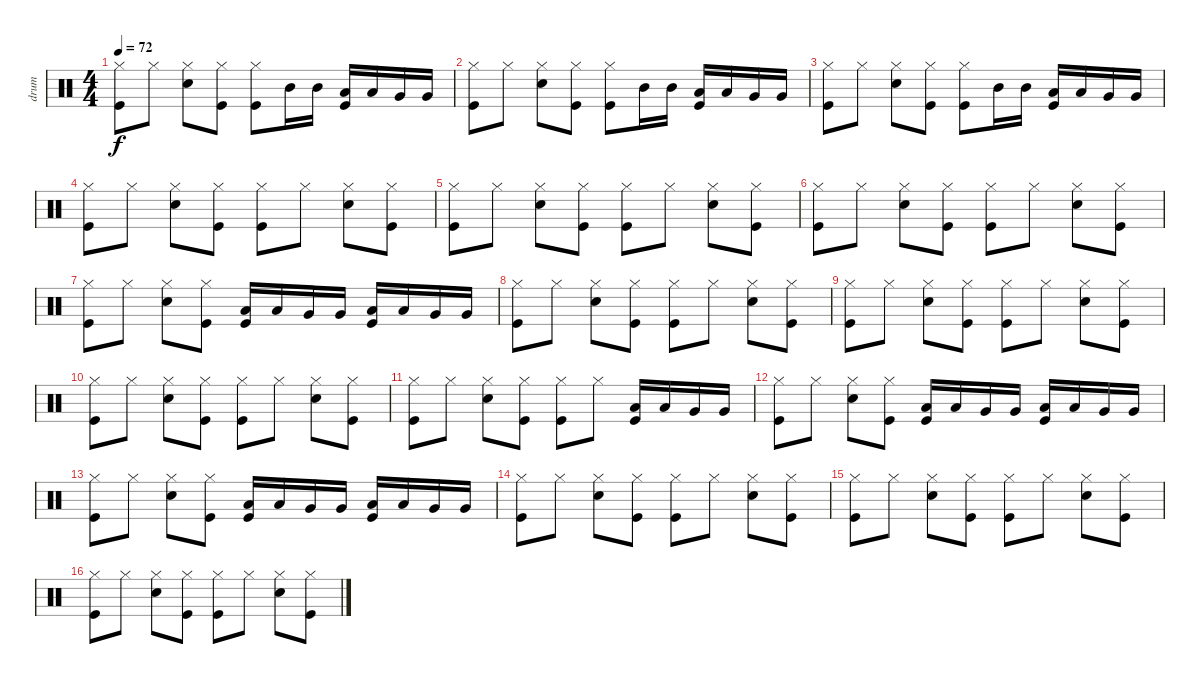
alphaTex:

\track ("drum" "drum") {instrument percussion}
\staff {score}
\articulation defaults
\ts (4 4)
\tempo 72
\clef neutral
\ks c
("Hi-Hat (closed)" "Kick (hit)").8{dy f} "Hi-Hat (closed)".8 ("Hi-Hat (closed)" "Snare (hit) 2").8 ("Hi-Hat (closed)" "Kick (hit)").8 ("Hi-Hat (closed)" "Kick (hit)").8 "Mid Tom (hit)".16 "Mid Tom (hit)".16 ("Low Tom (hit)" "Kick (hit)").16 "Low Tom (hit)".16 "Very Low Tom (hit)".16 "Very Low Tom (hit)".16 |
("Hi-Hat (closed)" "Kick (hit)").8 "Hi-Hat (closed)".8 ("Hi-Hat (closed)" "Snare (hit) 2").8 ("Hi-Hat (closed)" "Kick (hit)").8 ("Hi-Hat (closed)" "Kick (hit)").8 "Mid Tom (hit)".16 "Mid Tom (hit)".16 ("Low Tom (hit)" "Kick (hit)").16 "Low Tom (hit)".16 "Very Low Tom (hit)".16 "Very Low Tom (hit)".16 |
("Hi-Hat (closed)" "Kick (hit)").8 "Hi-Hat (closed)".8 ("Hi-Hat (closed)" "Snare (hit) 2").8 ("Hi-Hat (closed)" "Kick (hit)").8 ("Hi-Hat (closed)" "Kick (hit)").8 "Mid Tom (hit)".16 "Mid Tom (hit)".16 ("Low Tom (hit)" "Kick (hit)").16 "Low Tom (hit)".16 "Very Low Tom (hit)".16 "Very Low Tom (hit)".16 |
("Hi-Hat (closed)" "Kick (hit)").8 "Hi-Hat (closed)".8 ("Hi-Hat (closed)" "Snare (hit) 2").8 ("Hi-Hat (closed)" "Kick (hit)").8 ("Hi-Hat (closed)" "Kick (hit)").8 "Hi-Hat (closed)".8 ("Hi-Hat (closed)" "Snare (hit) 2").8 ("Hi-Hat (closed)" "Kick (hit)").8 |
("Hi-Hat (closed)" "Kick (hit)").8 "Hi-Hat (closed)".8 ("Hi-Hat (closed)" "Snare (hit) 2").8 ("Hi-Hat (closed)" "Kick (hit)").8 ("Hi-Hat (closed)" "Kick (hit)").8 "Hi-Hat (closed)".8 ("Hi-Hat (closed)" "Snare (hit) 2").8 ("Hi-Hat (closed)" "Kick (hit)").8 |
("Hi-Hat (closed)" "Kick (hit)").8 "Hi-Hat (closed)".8 ("Hi-Hat (closed)" "Snare (hit) 2").8 ("Hi-Hat (closed)" "Kick (hit)").8 ("Hi-Hat (closed)" "Kick (hit)").8 "Hi-Hat (closed)".8 ("Hi-Hat (closed)" "Snare (hit) 2").8 ("Hi-Hat (closed)" "Kick (hit)").8 |
("Hi-Hat (closed)" "Kick (hit)").8 "Hi-Hat (closed)".8 ("Hi-Hat (closed)" "Snare (hit) 2").8 ("Hi-Hat (closed)" "Kick (hit)").8 ("Low Tom (hit)" "Kick (hit)").16 "Low Tom (hit)".16 "Very Low Tom (hit)".16 "Very Low Tom (hit)".16 ("Low Tom (hit)" "Kick (hit)").16 "Low Tom (hit)".16 "Very Low Tom (hit)".16 "Very Low Tom (hit)".16 |
("Hi-Hat (closed)" "Kick (hit)").8 "Hi-Hat (closed)".8 ("Hi-Hat (closed)" "Snare (hit) 2").8 ("Hi-Hat (closed)" "Kick (hit)").8 ("Hi-Hat (closed)" "Kick (hit)").8 "Hi-Hat (closed)".8 ("Hi-Hat (closed)" "Snare (hit) 2").8 ("Hi-Hat (closed)" "Kick (hit)").8 |
("Hi-Hat (closed)" "Kick (hit)").8 "Hi-Hat (closed)".8 ("Hi-Hat (closed)" "Snare (hit) 2").8 ("Hi-Hat (closed)" "Kick (hit)").8 ("Hi-Hat (closed)" "Kick (hit)").8 "Hi-Hat (closed)".8 ("Hi-Hat (closed)" "Snare (hit) 2").8 ("Hi-Hat (closed)" "Kick (hit)").8 |
("Hi-Hat (closed)" "Kick (hit)").8 "Hi-Hat (closed)".8 ("Hi-Hat (closed)" "Snare (hit) 2").8 ("Hi-Hat (closed)" "Kick (hit)").8 ("Hi-Hat (closed)" "Kick (hit)").8 "Hi-Hat (closed)".8 ("Hi-Hat (closed)" "Snare (hit) 2").8 ("Hi-Hat (closed)" "Kick (hit)").8 |
("Hi-Hat (closed)" "Kick (hit)").8 "Hi-Hat (closed)".8 ("Hi-Hat (closed)" "Snare (hit) 2").8 ("Hi-Hat (closed)" "Kick (hit)").8 ("Hi-Hat (closed)" "Kick (hit)").8 "Hi-Hat (closed)".8 ("Low Tom (hit)" "Kick (hit)").16 "Low Tom (hit)".16 "Very Low Tom (hit)".16 "Very Low Tom (hit)".16 |
("Hi-Hat (closed)" "Kick (hit)").8 "Hi-Hat (closed)".8 ("Hi-Hat (closed)" "Snare (hit) 2").8 ("Hi-Hat (closed)" "Kick (hit)").8 ("Low Tom (hit)" "Kick (hit)").16 "Low Tom (hit)".16 "Very Low Tom (hit)".16 "Very Low Tom (hit)".16 ("Low Tom (hit)" "Kick (hit)").16 "Low Tom (hit)".16 "Very Low Tom (hit)".16 "Very Low Tom (hit)".16 |
("Hi-Hat (closed)" "Kick (hit)").8 "Hi-Hat (closed)".8 ("Hi-Hat (closed)" "Snare (hit) 2").8 ("Hi-Hat (closed)" "Kick (hit)").8 ("Low Tom (hit)" "Kick (hit)").16 "Low Tom (hit)".16 "Very Low Tom (hit)".16 "Very Low Tom (hit)".16 ("Low Tom (hit)" "Kick (hit)").16 "Low Tom (hit)".16 "Very Low Tom (hit)".16 "Very Low Tom (hit)".16 |
("Hi-Hat (closed)" "Kick (hit)").8 "Hi-Hat (closed)".8 ("Hi-Hat (closed)" "Snare (hit) 2").8 ("Hi-Hat (closed)" "Kick (hit)").8 ("Hi-Hat (closed)" "Kick (hit)").8 "Hi-Hat (closed)".8 ("Hi-Hat (closed)" "Snare (hit) 2").8 ("Hi-Hat (closed)" "Kick (hit)").8 |
("Hi-Hat (closed)" "Kick (hit)").8 "Hi-Hat (closed)".8 ("Hi-Hat (closed)" "Snare (hit) 2").8 ("Hi-Hat (closed)" "Kick (hit)").8 ("Hi-Hat (closed)" "Kick (hit)").8 "Hi-Hat (closed)".8 ("Hi-Hat (closed)" "Snare (hit) 2").8 ("Hi-Hat (closed)" "Kick (hit)").8 |
("Hi-Hat (closed)" "Kick (hit)").8 "Hi-Hat (closed)".8 ("Hi-Hat (closed)" "Snare (hit) 2").8 ("Hi-Hat (closed)" "Kick (hit)").8 ("Hi-Hat (closed)" "Kick (hit)").8 "Hi-Hat (closed)".8 ("Hi-Hat (closed)" "Snare (hit) 2").8 ("Hi-Hat (closed)" "Kick (hit)").8
